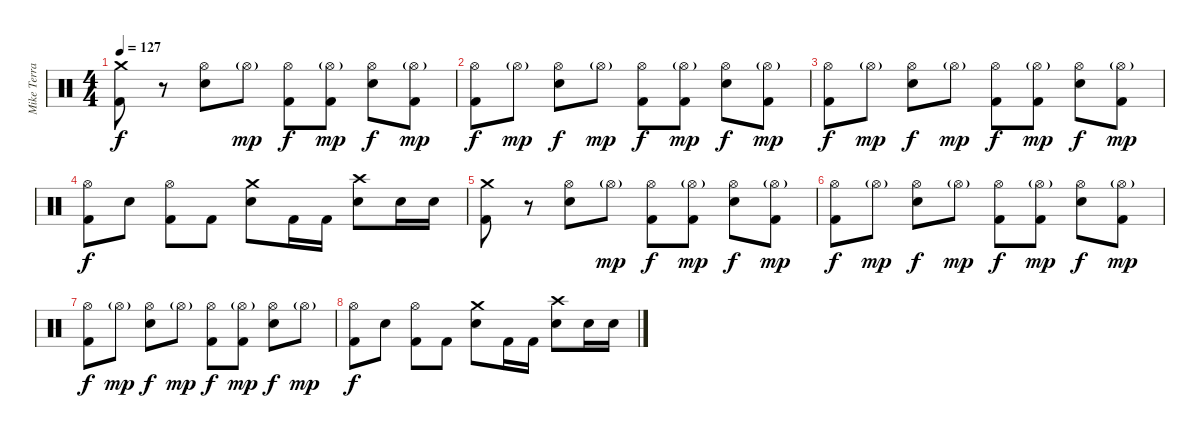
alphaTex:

\track ("Mike Terrana" "Mike Terra") {instrument percussion}
\staff {score}
\articulation defaults
\ts (4 4)
\tempo 127
\clef neutral
\ks c
("Crash medium (hit)" "Kick (hit) 2").8{dy f} r.8 ("Hi-Hat (open)" "Snare (hit) 2").8 "Hi-Hat (open)"{g}.8{dy mp} ("Hi-Hat (open)" "Kick (hit) 2").8{dy f} ("Hi-Hat (open)"{g} "Kick (hit) 2").8{dy mp} ("Hi-Hat (open)" "Snare (hit) 2").8{dy f} ("Hi-Hat (open)"{g} "Kick (hit) 2").8{dy mp} |
("Hi-Hat (open)" "Kick (hit) 2").8{dy f} "Hi-Hat (open)"{g}.8{dy mp} ("Hi-Hat (open)" "Snare (hit) 2").8{dy f} "Hi-Hat (open)"{g}.8{dy mp} ("Hi-Hat (open)" "Kick (hit) 2").8{dy f volume 6} ("Hi-Hat (open)"{g} "Kick (hit) 2").8{dy mp} ("Hi-Hat (open)" "Snare (hit) 2").8{dy f} ("Hi-Hat (open)"{g} "Kick (hit) 2").8{dy mp} |
("Hi-Hat (open)" "Kick (hit) 2").8{dy f} "Hi-Hat (open)"{g}.8{dy mp} ("Hi-Hat (open)" "Snare (hit) 2").8{dy f} "Hi-Hat (open)"{g}.8{dy mp} ("Hi-Hat (open)" "Kick (hit) 2").8{dy f} ("Hi-Hat (open)"{g} "Kick (hit) 2").8{dy mp} ("Hi-Hat (open)" "Snare (hit) 2").8{dy f} ("Hi-Hat (open)"{g} "Kick (hit) 2").8{dy mp} |
("Hi-Hat (open)" "Kick (hit) 2").8{dy f} "Snare (hit) 2".8 ("Hi-Hat (open)" "Kick (hit) 2").8 "Kick (hit) 2".8 ("Crash medium (hit)" "Snare (hit) 2").8 "Kick (hit) 2".16 "Kick (hit) 2".16 ("Crash high (hit)" "Snare (hit) 2").8 "Snare (hit) 2".16 "Snare (hit) 2".16 |
("Crash medium (hit)" "Kick (hit) 2").8 r.8 ("Hi-Hat (open)" "Snare (hit) 2").8{volume 0} "Hi-Hat (open)"{g}.8{dy mp} ("Hi-Hat (open)" "Kick (hit) 2").8{dy f} ("Hi-Hat (open)"{g} "Kick (hit) 2").8{dy mp} ("Hi-Hat (open)" "Snare (hit) 2").8{dy f} ("Hi-Hat (open)"{g} "Kick (hit) 2").8{dy mp} |
("Hi-Hat (open)" "Kick (hit) 2").8{dy f} "Hi-Hat (open)"{g}.8{dy mp} ("Hi-Hat (open)" "Snare (hit) 2").8{dy f} "Hi-Hat (open)"{g}.8{dy mp} ("Hi-Hat (open)" "Kick (hit) 2").8{dy f} ("Hi-Hat (open)"{g} "Kick (hit) 2").8{dy mp} ("Hi-Hat (open)" "Snare (hit) 2").8{dy f} ("Hi-Hat (open)"{g} "Kick (hit) 2").8{dy mp} |
("Hi-Hat (open)" "Kick (hit) 2").8{dy f} "Hi-Hat (open)"{g}.8{dy mp} ("Hi-Hat (open)" "Snare (hit) 2").8{dy f} "Hi-Hat (open)"{g}.8{dy mp} ("Hi-Hat (open)" "Kick (hit) 2").8{dy f} ("Hi-Hat (open)"{g} "Kick (hit) 2").8{dy mp} ("Hi-Hat (open)" "Snare (hit) 2").8{dy f} "Hi-Hat (open)"{g}.8{dy mp} |
("Hi-Hat (open)" "Kick (hit) 2").8{dy f} "Snare (hit) 2".8 ("Hi-Hat (open)" "Kick (hit) 2").8 "Kick (hit) 2".8 ("Crash medium (hit)" "Snare (hit) 2").8 "Kick (hit) 2".16 "Kick (hit) 2".16 ("Crash high (hit)" "Snare (hit) 2").8 "Snare (hit) 2".16 "Snare (hit) 2".16
